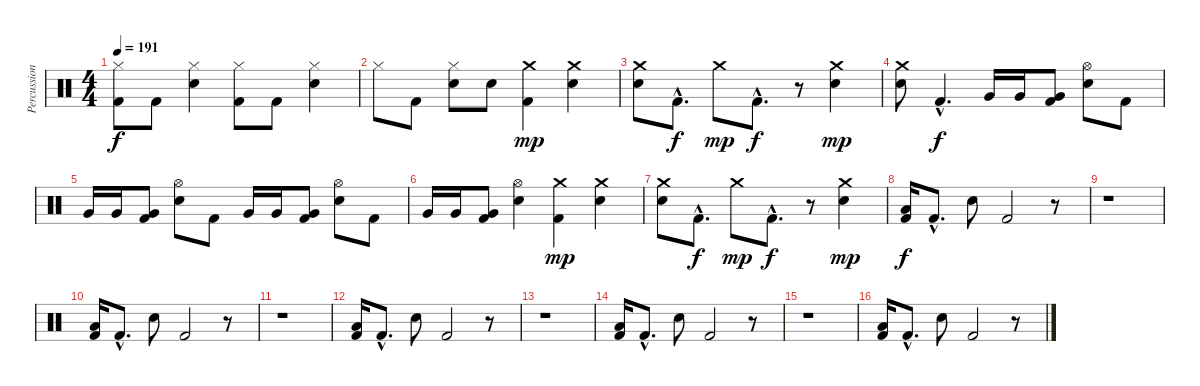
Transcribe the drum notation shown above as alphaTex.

\track ("Percussions" "Percussion") {instrument percussion}
\staff {score}
\articulation defaults
\ts (4 4)
\tempo 191
\clef neutral
\ks c
("Kick (hit) 2" "Hi-Hat (closed)").8{dy f} "Kick (hit) 2".8 ("Snare (hit) 2" "Hi-Hat (closed)").4 ("Kick (hit) 2" "Hi-Hat (closed)").8 "Kick (hit) 2".8 ("Snare (hit) 2" "Hi-Hat (closed)").4 |
"Hi-Hat (closed)".8 "Kick (hit) 2".8 ("Snare (hit) 2" "Hi-Hat (closed)").8 "Snare (hit) 2".8 ("Kick (hit) 2" "Crash medium (hit)").4{dy mp} ("Snare (hit) 2" "Crash medium (hit)").4 |
("Snare (hit) 2" "Crash medium (hit)").8 "Kick (hit) 2"{hac}.8{d dy f} "Crash medium (hit)".8{dy mp} "Kick (hit) 2"{hac}.8{d dy f} r.8 ("Snare (hit) 2" "Crash medium (hit)").4{dy mp} |
("Snare (hit) 2" "Crash medium (hit)").8 "Kick (hit) 2"{hac}.4{d dy f} "Very Low Tom (hit)".16 "Very Low Tom (hit)".16 ("Kick (hit) 2" "Very Low Tom (hit)").8 ("Snare (hit) 2" "Hi-Hat (open)").8 "Kick (hit) 2".8 |
"Very Low Tom (hit)".16 "Very Low Tom (hit)".16 ("Kick (hit) 2" "Very Low Tom (hit)").8 ("Snare (hit) 2" "Hi-Hat (open)").8 "Kick (hit) 2".8 "Very Low Tom (hit)".16 "Very Low Tom (hit)".16 ("Kick (hit) 2" "Very Low Tom (hit)").8 ("Snare (hit) 2" "Hi-Hat (open)").8 "Kick (hit) 2".8 |
"Very Low Tom (hit)".16 "Very Low Tom (hit)".16 ("Kick (hit) 2" "Very Low Tom (hit)").8 ("Snare (hit) 2" "Hi-Hat (open)").4 ("Kick (hit) 2" "Crash medium (hit)").4{dy mp} ("Snare (hit) 2" "Crash medium (hit)").4 |
("Snare (hit) 2" "Crash medium (hit)").8 "Kick (hit) 2"{hac}.8{d dy f} "Crash medium (hit)".8{dy mp} "Kick (hit) 2"{hac}.8{d dy f} r.8 ("Snare (hit) 2" "Crash medium (hit)").4{dy mp} |
("Kick (hit) 2" "Low Tom (hit)").16{dy f} "Kick (hit) 2"{hac}.8{d} "Snare (hit) 2".8 "Kick (hit) 2".2 r.8 |
r.1 |
("Kick (hit) 2" "Low Tom (hit)").16 "Kick (hit) 2"{hac}.8{d} "Snare (hit) 2".8 "Kick (hit) 2".2 r.8 |
r.1 |
("Kick (hit) 2" "Low Tom (hit)").16 "Kick (hit) 2"{hac}.8{d} "Snare (hit) 2".8 "Kick (hit) 2".2 r.8 |
r.1 |
("Kick (hit) 2" "Low Tom (hit)").16 "Kick (hit) 2"{hac}.8{d} "Snare (hit) 2".8 "Kick (hit) 2".2 r.8 |
r.1 |
("Kick (hit) 2" "Low Tom (hit)").16 "Kick (hit) 2"{hac}.8{d} "Snare (hit) 2".8 "Kick (hit) 2".2 r.8
